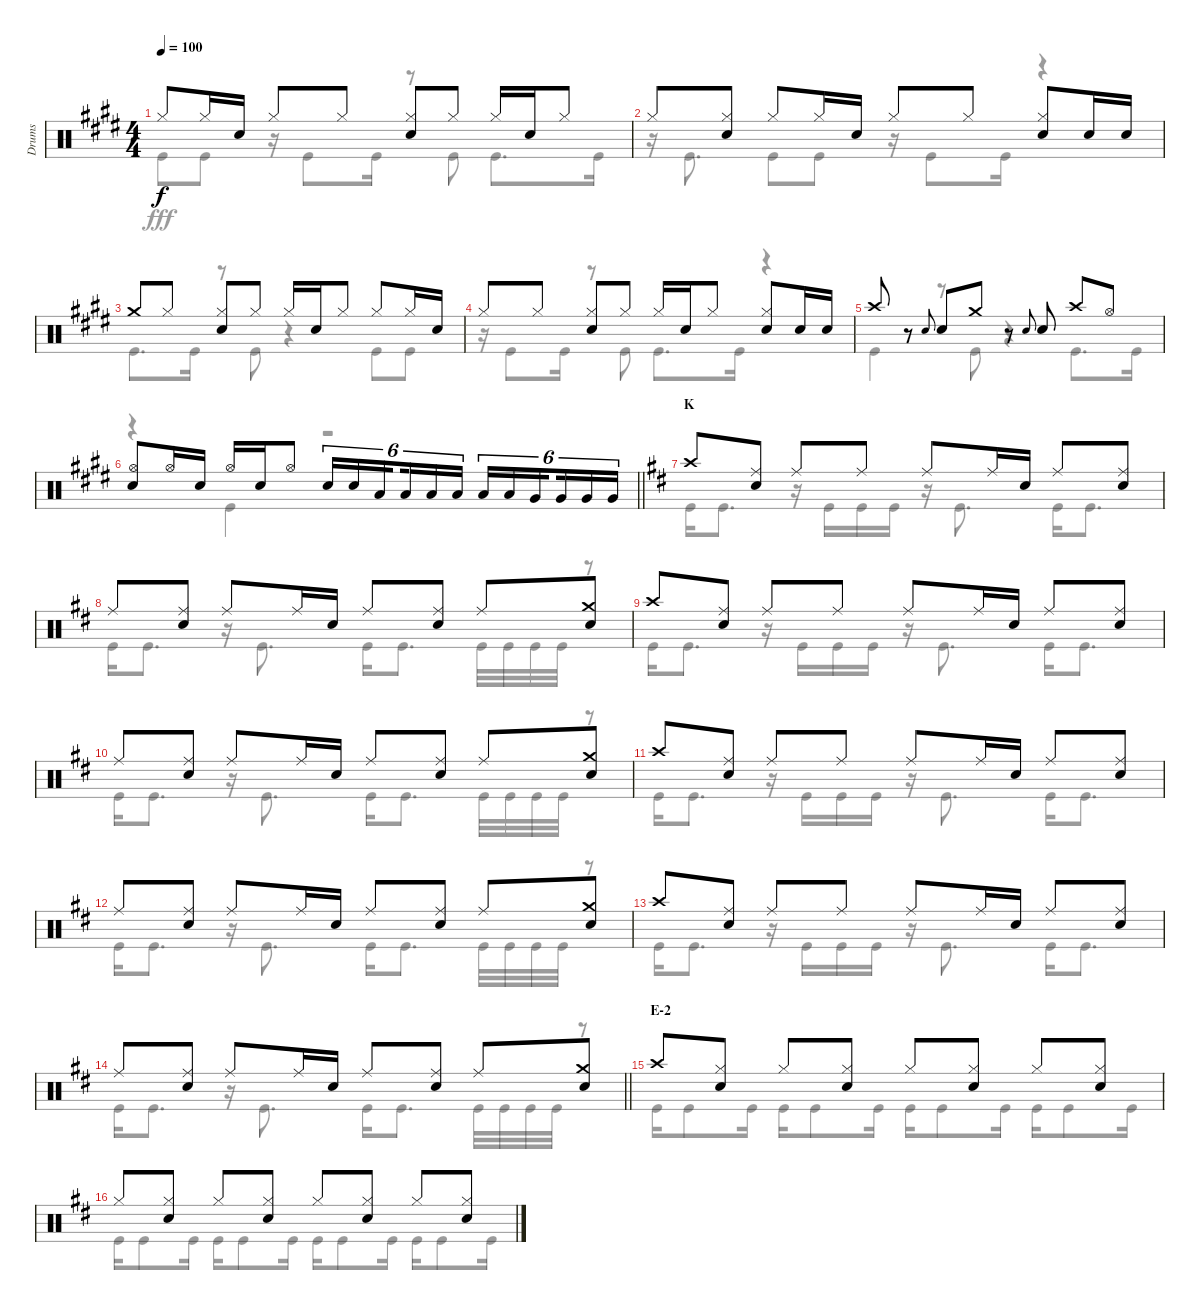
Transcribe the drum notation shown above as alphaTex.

\track ("Drums" "Drums") {instrument percussion}
\staff {score}
\articulation defaults
\voice
\ts (4 4)
\tempo 100
\clef neutral
\ks e "Hi-Hat (closed)".8{dy f} "Hi-Hat (closed)".16 "Snare (hit) 2".16 "Hi-Hat (closed)".8 "Hi-Hat (closed)".8
("Hi-Hat (closed)" "Snare (hit) 2").8 "Hi-Hat (closed)".8 "Hi-Hat (closed)".16 "Snare (hit) 2".16 "Hi-Hat (closed)".8 |
"Hi-Hat (closed)".8 ("Hi-Hat (closed)" "Snare (hit) 2").8 "Hi-Hat (closed)".8 "Hi-Hat (closed)".16 "Snare (hit) 2".16 "Hi-Hat (closed)".8 "Hi-Hat (closed)".8 ("Hi-Hat (closed)" "Snare (hit) 2").8 "Snare (hit) 2".16 "Snare (hit) 2".16 |
"Crash medium (hit)".8 "Hi-Hat (closed)".8 ("Hi-Hat (closed)" "Snare (hit) 2").8 "Hi-Hat (closed)".8 "Hi-Hat (closed)".16 "Snare (hit) 2".16 "Hi-Hat (closed)".8 "Hi-Hat (closed)".8 "Hi-Hat (closed)".16 "Snare (hit) 2".16 |
"Hi-Hat (closed)".8 "Hi-Hat (closed)".8 ("Hi-Hat (closed)" "Snare (hit) 2").8 "Hi-Hat (closed)".8 "Hi-Hat (closed)".16 "Snare (hit) 2".16 "Hi-Hat (closed)".8 ("Hi-Hat (closed)" "Snare (hit) 2").8 "Snare (hit) 2".16 "Snare (hit) 2".16 |
"Crash high (hit)".8 r.8 "Snare (hit) 2".8{gr onbeat} "Snare (hit) 2".8 "Crash medium (hit)".8 r.8 "Snare (hit) 2".8{gr onbeat} "Snare (hit) 2".8 "Crash high (hit)".8 "Hi-Hat (open)".8 |
\barLineRight lightlight
("Hi-Hat (open)" "Snare (hit) 2").8 "Hi-Hat (open)".16 "Snare (hit) 2".16 "Hi-Hat (open)".16 "Snare (hit) 2".16 "Hi-Hat (open)".8 "Snare (hit) 2".16{tu (6 4)} "Snare (hit) 2".16{tu (6 4)} "Low Tom (hit)".16{tu (6 4) beam splitsecondary} "Low Tom (hit)".16{tu (6 4)} "Low Tom (hit)".16{tu (6 4)} "Low Tom (hit)".16{tu (6 4)} "Low Tom (hit)".16{tu (6 4)} "Low Tom (hit)".16{tu (6 4)} "Very Low Tom (hit)".16{tu (6 4) beam splitsecondary} "Very Low Tom (hit)".16{tu (6 4)} "Very Low Tom (hit)".16{tu (6 4)} "Very Low Tom (hit)".16{tu (6 4)} |
\section ("" "K")
\ks d "Crash high (hit)".8
("Ride (middle)" "Snare (hit) 2").8 "Ride (middle)".8 "Ride (middle)".8 "Ride (middle)".8 "Ride (middle)".16 "Snare (hit) 2".16 "Ride (middle)".8 ("Ride (middle)" "Snare (hit) 2").8 |
"Ride (middle)".8 ("Ride (middle)" "Snare (hit) 2").8 "Ride (middle)".8 "Ride (middle)".16 "Snare (hit) 2".16 "Ride (middle)".8 ("Ride (middle)" "Snare (hit) 2").8 "Ride (middle)".8 ("Crash medium (hit)" "Snare (hit) 2").8 |
"Crash high (hit)".8 ("Ride (middle)" "Snare (hit) 2").8 "Ride (middle)".8 "Ride (middle)".8 "Ride (middle)".8 "Ride (middle)".16 "Snare (hit) 2".16 "Ride (middle)".8 ("Ride (middle)" "Snare (hit) 2").8 |
"Ride (middle)".8 ("Ride (middle)" "Snare (hit) 2").8 "Ride (middle)".8 "Ride (middle)".16 "Snare (hit) 2".16 "Ride (middle)".8 ("Ride (middle)" "Snare (hit) 2").8 "Ride (middle)".8 ("Crash medium (hit)" "Snare (hit) 2").8 |
"Crash high (hit)".8 ("Ride (middle)" "Snare (hit) 2").8 "Ride (middle)".8 "Ride (middle)".8 "Ride (middle)".8 "Ride (middle)".16 "Snare (hit) 2".16 "Ride (middle)".8 ("Ride (middle)" "Snare (hit) 2").8 |
"Ride (middle)".8 ("Ride (middle)" "Snare (hit) 2").8 "Ride (middle)".8 "Ride (middle)".16 "Snare (hit) 2".16 "Ride (middle)".8 ("Ride (middle)" "Snare (hit) 2").8 "Ride (middle)".8 ("Crash medium (hit)" "Snare (hit) 2").8 |
"Crash high (hit)".8 ("Ride (middle)" "Snare (hit) 2").8 "Ride (middle)".8 "Ride (middle)".8 "Ride (middle)".8 "Ride (middle)".16 "Snare (hit) 2".16 "Ride (middle)".8 ("Ride (middle)" "Snare (hit) 2").8 |
\barLineRight lightlight "Ride (middle)".8
("Ride (middle)" "Snare (hit) 2").8 "Ride (middle)".8 "Ride (middle)".16 "Snare (hit) 2".16 "Ride (middle)".8 ("Ride (middle)" "Snare (hit) 2").8 "Ride (middle)".8 ("Crash medium (hit)" "Snare (hit) 2").8 |
\section ("" "E-2")
"Crash high (hit)".8 ("Hi-Hat (closed)" "Snare (hit) 2").8 "Hi-Hat (closed)".8 ("Hi-Hat (closed)" "Snare (hit) 2").8 "Hi-Hat (closed)".8 ("Hi-Hat (closed)" "Snare (hit) 2").8 "Hi-Hat (closed)".8 ("Hi-Hat (closed)" "Snare (hit) 2").8 |
"Hi-Hat (closed)".8 ("Hi-Hat (closed)" "Snare (hit) 2").8 "Hi-Hat (closed)".8 ("Hi-Hat (closed)" "Snare (hit) 2").8 "Hi-Hat (closed)".8 ("Hi-Hat (closed)" "Snare (hit) 2").8 "Hi-Hat (closed)".8 ("Hi-Hat (closed)" "Snare (hit) 2").8
\voice
\clef neutral
\ottava regular
\simile none
\ks e "Kick (hit)".8{dy fff} "Kick (hit)".8
r.16 "Kick (hit)".8 "Kick (hit)".16 r.8 "Kick (hit)".8 "Kick (hit)".8{d} "Kick (hit)".16 |
r.16 "Kick (hit)".8{d} "Kick (hit)".8 "Kick (hit)".8 r.16 "Kick (hit)".8 "Kick (hit)".16 r.4 |
"Kick (hit)".8{d} "Kick (hit)".16 r.8 "Kick (hit)".8 r.4 "Kick (hit)".8 "Kick (hit)".8 |
r.16 "Kick (hit)".8 "Kick (hit)".16 r.8 "Kick (hit)".8 "Kick (hit)".8{d} "Kick (hit)".16 r.4 |
"Kick (hit)".4 r.8 "Kick (hit)".8 r.4 "Kick (hit)".8{d} "Kick (hit)".16 |
\barLineRight lightlight
r.4 "Kick (hit)".4 r.2 |
\ks d "Kick (hit)".16 "Kick (hit)".8{d}
r.16 "Kick (hit)".16 "Kick (hit)".16 "Kick (hit)".16 r.16 "Kick (hit)".8{d} "Kick (hit)".16 "Kick (hit)".8{d} |
"Kick (hit)".16 "Kick (hit)".8{d} r.16 "Kick (hit)".8{d} "Kick (hit)".16 "Kick (hit)".8{d} "Kick (hit)".32 "Kick (hit)".32 "Kick (hit)".32 "Kick (hit)".32 r.8 |
"Kick (hit)".16 "Kick (hit)".8{d} r.16 "Kick (hit)".16 "Kick (hit)".16 "Kick (hit)".16 r.16 "Kick (hit)".8{d} "Kick (hit)".16 "Kick (hit)".8{d} |
"Kick (hit)".16 "Kick (hit)".8{d} r.16 "Kick (hit)".8{d} "Kick (hit)".16 "Kick (hit)".8{d} "Kick (hit)".32 "Kick (hit)".32 "Kick (hit)".32 "Kick (hit)".32 r.8 |
"Kick (hit)".16 "Kick (hit)".8{d} r.16 "Kick (hit)".16 "Kick (hit)".16 "Kick (hit)".16 r.16 "Kick (hit)".8{d} "Kick (hit)".16 "Kick (hit)".8{d} |
"Kick (hit)".16 "Kick (hit)".8{d} r.16 "Kick (hit)".8{d} "Kick (hit)".16 "Kick (hit)".8{d} "Kick (hit)".32 "Kick (hit)".32 "Kick (hit)".32 "Kick (hit)".32 r.8 |
"Kick (hit)".16 "Kick (hit)".8{d} r.16 "Kick (hit)".16 "Kick (hit)".16 "Kick (hit)".16 r.16 "Kick (hit)".8{d} "Kick (hit)".16 "Kick (hit)".8{d} |
\barLineRight lightlight "Kick (hit)".16 "Kick (hit)".8{d}
r.16 "Kick (hit)".8{d} "Kick (hit)".16 "Kick (hit)".8{d} "Kick (hit)".32 "Kick (hit)".32 "Kick (hit)".32 "Kick (hit)".32 r.8 |
"Kick (hit)".16 "Kick (hit)".8 "Kick (hit)".16 "Kick (hit)".16 "Kick (hit)".8 "Kick (hit)".16 "Kick (hit)".16 "Kick (hit)".8 "Kick (hit)".16 "Kick (hit)".16 "Kick (hit)".8 "Kick (hit)".16 |
"Kick (hit)".16 "Kick (hit)".8 "Kick (hit)".16 "Kick (hit)".16 "Kick (hit)".8 "Kick (hit)".16 "Kick (hit)".16 "Kick (hit)".8 "Kick (hit)".16 "Kick (hit)".16 "Kick (hit)".8 "Kick (hit)".16
